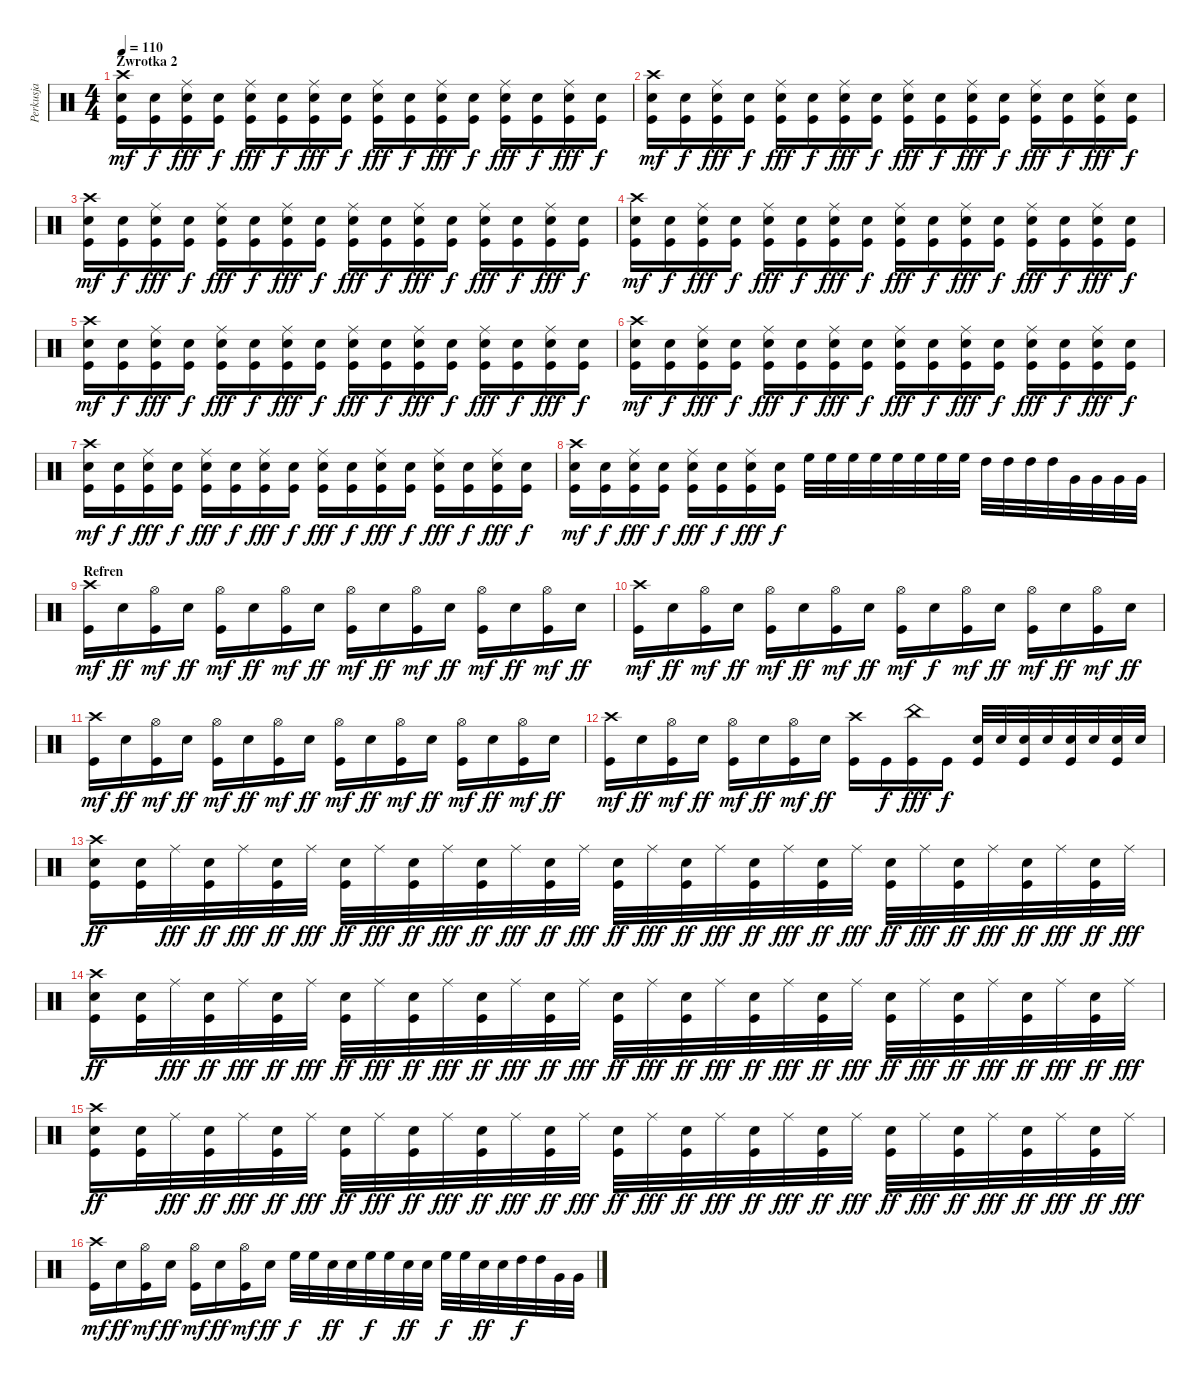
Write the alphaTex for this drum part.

\track ("Perkusja" "Perkusja") {instrument percussion}
\staff {score}
\articulation defaults
\ts (4 4)
\section ("" "Zwrotka 2")
\tempo 110
\clef neutral
\ks c
("Crash high (hit)" "Snare (hit) 2" "Kick (hit)").16{dy mf} ("Snare (hit) 2" "Kick (hit)").16{dy f} ("Ride (middle)" "Snare (hit) 2" "Kick (hit)").16{dy fff} ("Snare (hit) 2" "Kick (hit)").16{dy f} ("Ride (middle)" "Snare (hit) 2" "Kick (hit)").16{dy fff} ("Snare (hit) 2" "Kick (hit)").16{dy f} ("Ride (middle)" "Snare (hit) 2" "Kick (hit)").16{dy fff} ("Snare (hit) 2" "Kick (hit)").16{dy f} ("Ride (middle)" "Snare (hit) 2" "Kick (hit)").16{dy fff} ("Snare (hit) 2" "Kick (hit)").16{dy f} ("Ride (middle)" "Snare (hit) 2" "Kick (hit)").16{dy fff} ("Snare (hit) 2" "Kick (hit)").16{dy f} ("Ride (middle)" "Snare (hit) 2" "Kick (hit)").16{dy fff} ("Snare (hit) 2" "Kick (hit)").16{dy f} ("Ride (middle)" "Snare (hit) 2" "Kick (hit)").16{dy fff} ("Snare (hit) 2" "Kick (hit)").16{dy f} |
("Crash high (hit)" "Snare (hit) 2" "Kick (hit)").16{dy mf} ("Snare (hit) 2" "Kick (hit)").16{dy f} ("Ride (middle)" "Snare (hit) 2" "Kick (hit)").16{dy fff} ("Snare (hit) 2" "Kick (hit)").16{dy f} ("Ride (middle)" "Snare (hit) 2" "Kick (hit)").16{dy fff} ("Snare (hit) 2" "Kick (hit)").16{dy f} ("Ride (middle)" "Snare (hit) 2" "Kick (hit)").16{dy fff} ("Snare (hit) 2" "Kick (hit)").16{dy f} ("Ride (middle)" "Snare (hit) 2" "Kick (hit)").16{dy fff} ("Snare (hit) 2" "Kick (hit)").16{dy f} ("Ride (middle)" "Snare (hit) 2" "Kick (hit)").16{dy fff} ("Snare (hit) 2" "Kick (hit)").16{dy f} ("Ride (middle)" "Snare (hit) 2" "Kick (hit)").16{dy fff} ("Snare (hit) 2" "Kick (hit)").16{dy f} ("Ride (middle)" "Snare (hit) 2" "Kick (hit)").16{dy fff} ("Snare (hit) 2" "Kick (hit)").16{dy f} |
("Crash high (hit)" "Snare (hit) 2" "Kick (hit)").16{dy mf} ("Snare (hit) 2" "Kick (hit)").16{dy f} ("Ride (middle)" "Snare (hit) 2" "Kick (hit)").16{dy fff} ("Snare (hit) 2" "Kick (hit)").16{dy f} ("Ride (middle)" "Snare (hit) 2" "Kick (hit)").16{dy fff} ("Snare (hit) 2" "Kick (hit)").16{dy f} ("Ride (middle)" "Snare (hit) 2" "Kick (hit)").16{dy fff} ("Snare (hit) 2" "Kick (hit)").16{dy f} ("Ride (middle)" "Snare (hit) 2" "Kick (hit)").16{dy fff} ("Snare (hit) 2" "Kick (hit)").16{dy f} ("Ride (middle)" "Snare (hit) 2" "Kick (hit)").16{dy fff} ("Snare (hit) 2" "Kick (hit)").16{dy f} ("Ride (middle)" "Snare (hit) 2" "Kick (hit)").16{dy fff} ("Snare (hit) 2" "Kick (hit)").16{dy f} ("Ride (middle)" "Snare (hit) 2" "Kick (hit)").16{dy fff} ("Snare (hit) 2" "Kick (hit)").16{dy f} |
("Crash high (hit)" "Snare (hit) 2" "Kick (hit)").16{dy mf} ("Snare (hit) 2" "Kick (hit)").16{dy f} ("Ride (middle)" "Snare (hit) 2" "Kick (hit)").16{dy fff} ("Snare (hit) 2" "Kick (hit)").16{dy f} ("Ride (middle)" "Snare (hit) 2" "Kick (hit)").16{dy fff} ("Snare (hit) 2" "Kick (hit)").16{dy f} ("Ride (middle)" "Snare (hit) 2" "Kick (hit)").16{dy fff} ("Snare (hit) 2" "Kick (hit)").16{dy f} ("Ride (middle)" "Snare (hit) 2" "Kick (hit)").16{dy fff} ("Snare (hit) 2" "Kick (hit)").16{dy f} ("Ride (middle)" "Snare (hit) 2" "Kick (hit)").16{dy fff} ("Snare (hit) 2" "Kick (hit)").16{dy f} ("Ride (middle)" "Snare (hit) 2" "Kick (hit)").16{dy fff} ("Snare (hit) 2" "Kick (hit)").16{dy f} ("Ride (middle)" "Snare (hit) 2" "Kick (hit)").16{dy fff} ("Snare (hit) 2" "Kick (hit)").16{dy f} |
("Crash high (hit)" "Snare (hit) 2" "Kick (hit)").16{dy mf} ("Snare (hit) 2" "Kick (hit)").16{dy f} ("Ride (middle)" "Snare (hit) 2" "Kick (hit)").16{dy fff} ("Snare (hit) 2" "Kick (hit)").16{dy f} ("Ride (middle)" "Snare (hit) 2" "Kick (hit)").16{dy fff} ("Snare (hit) 2" "Kick (hit)").16{dy f} ("Ride (middle)" "Snare (hit) 2" "Kick (hit)").16{dy fff} ("Snare (hit) 2" "Kick (hit)").16{dy f} ("Ride (middle)" "Snare (hit) 2" "Kick (hit)").16{dy fff} ("Snare (hit) 2" "Kick (hit)").16{dy f} ("Ride (middle)" "Snare (hit) 2" "Kick (hit)").16{dy fff} ("Snare (hit) 2" "Kick (hit)").16{dy f} ("Ride (middle)" "Snare (hit) 2" "Kick (hit)").16{dy fff} ("Snare (hit) 2" "Kick (hit)").16{dy f} ("Ride (middle)" "Snare (hit) 2" "Kick (hit)").16{dy fff} ("Snare (hit) 2" "Kick (hit)").16{dy f} |
("Crash high (hit)" "Snare (hit) 2" "Kick (hit)").16{dy mf} ("Snare (hit) 2" "Kick (hit)").16{dy f} ("Ride (middle)" "Snare (hit) 2" "Kick (hit)").16{dy fff} ("Snare (hit) 2" "Kick (hit)").16{dy f} ("Ride (middle)" "Snare (hit) 2" "Kick (hit)").16{dy fff} ("Snare (hit) 2" "Kick (hit)").16{dy f} ("Ride (middle)" "Snare (hit) 2" "Kick (hit)").16{dy fff} ("Snare (hit) 2" "Kick (hit)").16{dy f} ("Ride (middle)" "Snare (hit) 2" "Kick (hit)").16{dy fff} ("Snare (hit) 2" "Kick (hit)").16{dy f} ("Ride (middle)" "Snare (hit) 2" "Kick (hit)").16{dy fff} ("Snare (hit) 2" "Kick (hit)").16{dy f} ("Ride (middle)" "Snare (hit) 2" "Kick (hit)").16{dy fff} ("Snare (hit) 2" "Kick (hit)").16{dy f} ("Ride (middle)" "Snare (hit) 2" "Kick (hit)").16{dy fff} ("Snare (hit) 2" "Kick (hit)").16{dy f} |
("Crash high (hit)" "Snare (hit) 2" "Kick (hit)").16{dy mf} ("Snare (hit) 2" "Kick (hit)").16{dy f} ("Ride (middle)" "Snare (hit) 2" "Kick (hit)").16{dy fff} ("Snare (hit) 2" "Kick (hit)").16{dy f} ("Ride (middle)" "Snare (hit) 2" "Kick (hit)").16{dy fff} ("Snare (hit) 2" "Kick (hit)").16{dy f} ("Ride (middle)" "Snare (hit) 2" "Kick (hit)").16{dy fff} ("Snare (hit) 2" "Kick (hit)").16{dy f} ("Ride (middle)" "Snare (hit) 2" "Kick (hit)").16{dy fff} ("Snare (hit) 2" "Kick (hit)").16{dy f} ("Ride (middle)" "Snare (hit) 2" "Kick (hit)").16{dy fff} ("Snare (hit) 2" "Kick (hit)").16{dy f} ("Ride (middle)" "Snare (hit) 2" "Kick (hit)").16{dy fff} ("Snare (hit) 2" "Kick (hit)").16{dy f} ("Ride (middle)" "Snare (hit) 2" "Kick (hit)").16{dy fff} ("Snare (hit) 2" "Kick (hit)").16{dy f} |
("Crash high (hit)" "Snare (hit) 2" "Kick (hit)").16{dy mf} ("Snare (hit) 2" "Kick (hit)").16{dy f} ("Ride (middle)" "Snare (hit) 2" "Kick (hit)").16{dy fff} ("Snare (hit) 2" "Kick (hit)").16{dy f} ("Ride (middle)" "Snare (hit) 2" "Kick (hit)").16{dy fff} ("Snare (hit) 2" "Kick (hit)").16{dy f} ("Ride (middle)" "Snare (hit) 2" "Kick (hit)").16{dy fff} ("Snare (hit) 2" "Kick (hit)").16{dy f} "High Floor Tom (hit)".32 "High Floor Tom (hit)".32 "High Floor Tom (hit)".32 "High Floor Tom (hit)".32 "High Floor Tom (hit)".32 "High Floor Tom (hit)".32 "High Floor Tom (hit)".32 "High Floor Tom (hit)".32 "High Tom (hit)".32 "High Tom (hit)".32 "High Tom (hit)".32 "High Tom (hit)".32 "Very Low Tom (hit)".32 "Very Low Tom (hit)".32 "Very Low Tom (hit)".32 "Very Low Tom (hit)".32 |
\section ("" "Refren")
("Crash high (hit)" "Kick (hit)").16{dy mf} "Snare (hit) 2".16{dy ff} ("Hi-Hat (open)" "Kick (hit)").16{dy mf} "Snare (hit) 2".16{dy ff} ("Hi-Hat (open)" "Kick (hit)").16{dy mf} "Snare (hit) 2".16{dy ff} ("Hi-Hat (open)" "Kick (hit)").16{dy mf} "Snare (hit) 2".16{dy ff} ("Hi-Hat (open)" "Kick (hit)").16{dy mf} "Snare (hit) 2".16{dy ff} ("Hi-Hat (open)" "Kick (hit)").16{dy mf} "Snare (hit) 2".16{dy ff} ("Hi-Hat (open)" "Kick (hit)").16{dy mf} "Snare (hit) 2".16{dy ff} ("Hi-Hat (open)" "Kick (hit)").16{dy mf} "Snare (hit) 2".16{dy ff} |
("Crash high (hit)" "Kick (hit)").16{dy mf} "Snare (hit) 2".16{dy ff} ("Hi-Hat (open)" "Kick (hit)").16{dy mf} "Snare (hit) 2".16{dy ff} ("Hi-Hat (open)" "Kick (hit)").16{dy mf} "Snare (hit) 2".16{dy ff} ("Hi-Hat (open)" "Kick (hit)").16{dy mf} "Snare (hit) 2".16{dy ff} ("Hi-Hat (open)" "Kick (hit)").16{dy mf} "Snare (hit) 2".16{dy f} ("Hi-Hat (open)" "Kick (hit)").16{dy mf} "Snare (hit) 2".16{dy ff} ("Hi-Hat (open)" "Kick (hit)").16{dy mf} "Snare (hit) 2".16{dy ff} ("Hi-Hat (open)" "Kick (hit)").16{dy mf} "Snare (hit) 2".16{dy ff} |
("Crash high (hit)" "Kick (hit)").16{dy mf} "Snare (hit) 2".16{dy ff} ("Hi-Hat (open)" "Kick (hit)").16{dy mf} "Snare (hit) 2".16{dy ff} ("Hi-Hat (open)" "Kick (hit)").16{dy mf} "Snare (hit) 2".16{dy ff} ("Hi-Hat (open)" "Kick (hit)").16{dy mf} "Snare (hit) 2".16{dy ff} ("Hi-Hat (open)" "Kick (hit)").16{dy mf} "Snare (hit) 2".16{dy ff} ("Hi-Hat (open)" "Kick (hit)").16{dy mf} "Snare (hit) 2".16{dy ff} ("Hi-Hat (open)" "Kick (hit)").16{dy mf} "Snare (hit) 2".16{dy ff} ("Hi-Hat (open)" "Kick (hit)").16{dy mf} "Snare (hit) 2".16{dy ff} |
("Crash high (hit)" "Kick (hit)").16{dy mf} "Snare (hit) 2".16{dy ff} ("Hi-Hat (open)" "Kick (hit)").16{dy mf} "Snare (hit) 2".16{dy ff} ("Hi-Hat (open)" "Kick (hit)").16{dy mf} "Snare (hit) 2".16{dy ff} ("Hi-Hat (open)" "Kick (hit)").16{dy mf} "Snare (hit) 2".16{dy ff} ("Crash high (hit)" "Kick (hit)").16 "Kick (hit)".16{dy f} ("China (hit)" "Kick (hit)").16{dy fff} "Kick (hit)".16{dy f} ("Snare (hit) 2" "Kick (hit)").32 "Snare (hit) 2".32 ("Snare (hit) 2" "Kick (hit)").32 "Snare (hit) 2".32 ("Snare (hit) 2" "Kick (hit)").32 "Snare (hit) 2".32 ("Snare (hit) 2" "Kick (hit)").32 "Snare (hit) 2".32 |
("Crash high (hit)" "Snare (hit) 2" "Kick (hit)").16{dy ff} ("Snare (hit) 2" "Kick (hit)").32 "Ride (middle)".32{dy fff} ("Snare (hit) 2" "Kick (hit)").32{dy ff} "Ride (middle)".32{dy fff} ("Snare (hit) 2" "Kick (hit)").32{dy ff} "Ride (middle)".32{dy fff} ("Snare (hit) 2" "Kick (hit)").32{dy ff} "Ride (middle)".32{dy fff} ("Snare (hit) 2" "Kick (hit)").32{dy ff} "Ride (middle)".32{dy fff} ("Snare (hit) 2" "Kick (hit)").32{dy ff} "Ride (middle)".32{dy fff} ("Snare (hit) 2" "Kick (hit)").32{dy ff} "Ride (middle)".32{dy fff} ("Snare (hit) 2" "Kick (hit)").32{dy ff} "Ride (middle)".32{dy fff} ("Snare (hit) 2" "Kick (hit)").32{dy ff} "Ride (middle)".32{dy fff} ("Snare (hit) 2" "Kick (hit)").32{dy ff} "Ride (middle)".32{dy fff} ("Snare (hit) 2" "Kick (hit)").32{dy ff} "Ride (middle)".32{dy fff} ("Snare (hit) 2" "Kick (hit)").32{dy ff} "Ride (middle)".32{dy fff} ("Snare (hit) 2" "Kick (hit)").32{dy ff} "Ride (middle)".32{dy fff} ("Snare (hit) 2" "Kick (hit)").32{dy ff} "Ride (middle)".32{dy fff} ("Snare (hit) 2" "Kick (hit)").32{dy ff} "Ride (middle)".32{dy fff} |
("Crash high (hit)" "Snare (hit) 2" "Kick (hit)").16{dy ff} ("Snare (hit) 2" "Kick (hit)").32 "Ride (middle)".32{dy fff} ("Snare (hit) 2" "Kick (hit)").32{dy ff} "Ride (middle)".32{dy fff} ("Snare (hit) 2" "Kick (hit)").32{dy ff} "Ride (middle)".32{dy fff} ("Snare (hit) 2" "Kick (hit)").32{dy ff} "Ride (middle)".32{dy fff} ("Snare (hit) 2" "Kick (hit)").32{dy ff} "Ride (middle)".32{dy fff} ("Snare (hit) 2" "Kick (hit)").32{dy ff} "Ride (middle)".32{dy fff} ("Snare (hit) 2" "Kick (hit)").32{dy ff} "Ride (middle)".32{dy fff} ("Snare (hit) 2" "Kick (hit)").32{dy ff} "Ride (middle)".32{dy fff} ("Snare (hit) 2" "Kick (hit)").32{dy ff} "Ride (middle)".32{dy fff} ("Snare (hit) 2" "Kick (hit)").32{dy ff} "Ride (middle)".32{dy fff} ("Snare (hit) 2" "Kick (hit)").32{dy ff} "Ride (middle)".32{dy fff} ("Snare (hit) 2" "Kick (hit)").32{dy ff} "Ride (middle)".32{dy fff} ("Snare (hit) 2" "Kick (hit)").32{dy ff} "Ride (middle)".32{dy fff} ("Snare (hit) 2" "Kick (hit)").32{dy ff} "Ride (middle)".32{dy fff} ("Snare (hit) 2" "Kick (hit)").32{dy ff} "Ride (middle)".32{dy fff} |
("Crash high (hit)" "Snare (hit) 2" "Kick (hit)").16{dy ff} ("Snare (hit) 2" "Kick (hit)").32 "Ride (middle)".32{dy fff} ("Snare (hit) 2" "Kick (hit)").32{dy ff} "Ride (middle)".32{dy fff} ("Snare (hit) 2" "Kick (hit)").32{dy ff} "Ride (middle)".32{dy fff} ("Snare (hit) 2" "Kick (hit)").32{dy ff} "Ride (middle)".32{dy fff} ("Snare (hit) 2" "Kick (hit)").32{dy ff} "Ride (middle)".32{dy fff} ("Snare (hit) 2" "Kick (hit)").32{dy ff} "Ride (middle)".32{dy fff} ("Snare (hit) 2" "Kick (hit)").32{dy ff} "Ride (middle)".32{dy fff} ("Snare (hit) 2" "Kick (hit)").32{dy ff} "Ride (middle)".32{dy fff} ("Snare (hit) 2" "Kick (hit)").32{dy ff} "Ride (middle)".32{dy fff} ("Snare (hit) 2" "Kick (hit)").32{dy ff} "Ride (middle)".32{dy fff} ("Snare (hit) 2" "Kick (hit)").32{dy ff} "Ride (middle)".32{dy fff} ("Snare (hit) 2" "Kick (hit)").32{dy ff} "Ride (middle)".32{dy fff} ("Snare (hit) 2" "Kick (hit)").32{dy ff} "Ride (middle)".32{dy fff} ("Snare (hit) 2" "Kick (hit)").32{dy ff} "Ride (middle)".32{dy fff} ("Snare (hit) 2" "Kick (hit)").32{dy ff} "Ride (middle)".32{dy fff} |
("Crash high (hit)" "Kick (hit)").16{dy mf} "Snare (hit) 2".16{dy ff} ("Hi-Hat (open)" "Kick (hit)").16{dy mf} "Snare (hit) 2".16{dy ff} ("Hi-Hat (open)" "Kick (hit)").16{dy mf} "Snare (hit) 2".16{dy ff} ("Hi-Hat (open)" "Kick (hit)").16{dy mf} "Snare (hit) 2".16{dy ff} "High Floor Tom (hit)".32{dy f} "High Floor Tom (hit)".32 "Snare (hit) 2".32{dy ff} "Snare (hit) 2".32 "High Floor Tom (hit)".32{dy f} "High Floor Tom (hit)".32 "Snare (hit) 2".32{dy ff} "Snare (hit) 2".32 "High Floor Tom (hit)".32{dy f} "High Floor Tom (hit)".32 "Snare (hit) 2".32{dy ff} "Snare (hit) 2".32 "High Tom (hit)".32{dy f} "High Tom (hit)".32 "Very Low Tom (hit)".32 "Very Low Tom (hit)".32
